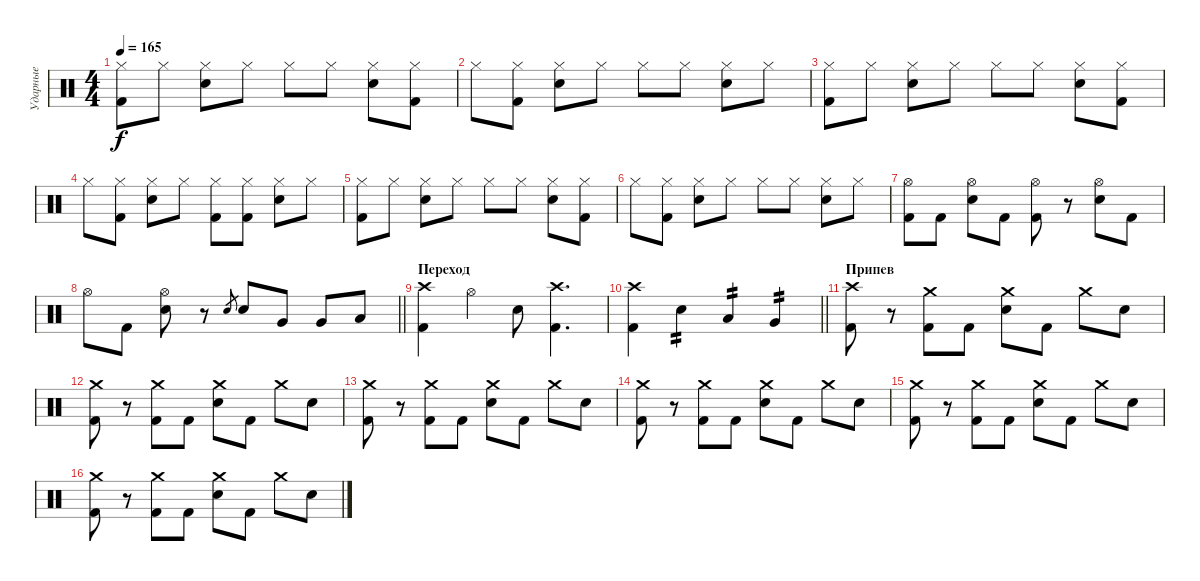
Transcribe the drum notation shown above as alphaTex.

\track ("Ударные" "Ударные") {instrument percussion}
\staff {score}
\articulation defaults
\ts (4 4)
\tempo 165
\clef neutral
\ks c
("Hi-Hat (closed)" "Kick (hit) 2").8{dy f} "Hi-Hat (closed)".8 ("Hi-Hat (closed)" "Electric Snare (hit)").8 "Hi-Hat (closed)".8 "Hi-Hat (closed)".8 "Hi-Hat (closed)".8 ("Hi-Hat (closed)" "Electric Snare (hit)").8 ("Hi-Hat (closed)" "Kick (hit) 2").8 |
"Hi-Hat (closed)".8 ("Hi-Hat (closed)" "Kick (hit) 2").8 ("Hi-Hat (closed)" "Electric Snare (hit)").8 "Hi-Hat (closed)".8 "Hi-Hat (closed)".8 "Hi-Hat (closed)".8 ("Hi-Hat (closed)" "Electric Snare (hit)").8 "Hi-Hat (closed)".8 |
("Hi-Hat (closed)" "Kick (hit) 2").8 "Hi-Hat (closed)".8 ("Hi-Hat (closed)" "Electric Snare (hit)").8 "Hi-Hat (closed)".8 "Hi-Hat (closed)".8 "Hi-Hat (closed)".8 ("Hi-Hat (closed)" "Electric Snare (hit)").8 ("Hi-Hat (closed)" "Kick (hit) 2").8 |
"Hi-Hat (closed)".8 ("Hi-Hat (closed)" "Kick (hit) 2").8 ("Hi-Hat (closed)" "Electric Snare (hit)").8 "Hi-Hat (closed)".8 ("Hi-Hat (closed)" "Kick (hit) 2").8 ("Hi-Hat (closed)" "Kick (hit) 2").8 ("Hi-Hat (closed)" "Electric Snare (hit)").8 "Hi-Hat (closed)".8 |
("Hi-Hat (closed)" "Kick (hit) 2").8 "Hi-Hat (closed)".8 ("Hi-Hat (closed)" "Electric Snare (hit)").8 "Hi-Hat (closed)".8 "Hi-Hat (closed)".8 "Hi-Hat (closed)".8 ("Hi-Hat (closed)" "Electric Snare (hit)").8 ("Hi-Hat (closed)" "Kick (hit) 2").8 |
"Hi-Hat (closed)".8 ("Hi-Hat (closed)" "Kick (hit) 2").8 ("Hi-Hat (closed)" "Electric Snare (hit)").8 "Hi-Hat (closed)".8 "Hi-Hat (closed)".8 "Hi-Hat (closed)".8 ("Hi-Hat (closed)" "Electric Snare (hit)").8 "Hi-Hat (closed)".8 |
("Hi-Hat (open)" "Kick (hit) 2").8 "Kick (hit) 2".8 ("Hi-Hat (open)" "Electric Snare (hit)").8 "Kick (hit) 2".8 ("Hi-Hat (open)" "Kick (hit) 2").8 r.8 ("Hi-Hat (open)" "Electric Snare (hit)").8 "Kick (hit) 2".8 |
\barLineRight lightlight "Hi-Hat (open)".8 "Kick (hit) 2".8
("Hi-Hat (open)" "Electric Snare (hit)").8 r.8 "Electric Snare (hit)".8{gr} "Electric Snare (hit)".8 "Very Low Tom (hit)".8 "Very Low Tom (hit)".8 "Low Floor Tom (hit)".8 |
\section ("" "Переход")
("Crash high (hit)" "Kick (hit) 2").4 "Hi-Hat (open)".4 "Electric Snare (hit)".8 ("Crash high (hit)" "Kick (hit) 2").4{d} |
\barLineRight lightlight
("Crash high (hit)" "Kick (hit) 2").4 "Electric Snare (hit)".4{tp 2} "Low Tom (hit)".4{tp 2} "Very Low Tom (hit)".4{tp 2} |
\section ("" "Припев")
("Crash high (hit)" "Kick (hit) 2").8 r.8 ("Crash medium (hit)" "Kick (hit) 2").8 "Kick (hit) 2".8 ("Crash medium (hit)" "Electric Snare (hit)").8 "Kick (hit) 2".8 "Crash medium (hit)".8 "Electric Snare (hit)".8 |
("Crash medium (hit)" "Kick (hit) 2").8 r.8 ("Crash medium (hit)" "Kick (hit) 2").8 "Kick (hit) 2".8 ("Crash medium (hit)" "Electric Snare (hit)").8 "Kick (hit) 2".8 "Crash medium (hit)".8 "Electric Snare (hit)".8 |
("Crash medium (hit)" "Kick (hit) 2").8 r.8 ("Crash medium (hit)" "Kick (hit) 2").8 "Kick (hit) 2".8 ("Crash medium (hit)" "Electric Snare (hit)").8 "Kick (hit) 2".8 "Crash medium (hit)".8 "Electric Snare (hit)".8 |
("Crash medium (hit)" "Kick (hit) 2").8 r.8 ("Crash medium (hit)" "Kick (hit) 2").8 "Kick (hit) 2".8 ("Crash medium (hit)" "Electric Snare (hit)").8 "Kick (hit) 2".8 "Crash medium (hit)".8 "Electric Snare (hit)".8 |
("Crash medium (hit)" "Kick (hit) 2").8 r.8 ("Crash medium (hit)" "Kick (hit) 2").8 "Kick (hit) 2".8 ("Crash medium (hit)" "Electric Snare (hit)").8 "Kick (hit) 2".8 "Crash medium (hit)".8 "Electric Snare (hit)".8 |
("Crash medium (hit)" "Kick (hit) 2").8 r.8 ("Crash medium (hit)" "Kick (hit) 2").8 "Kick (hit) 2".8 ("Crash medium (hit)" "Electric Snare (hit)").8 "Kick (hit) 2".8 "Crash medium (hit)".8 "Electric Snare (hit)".8
